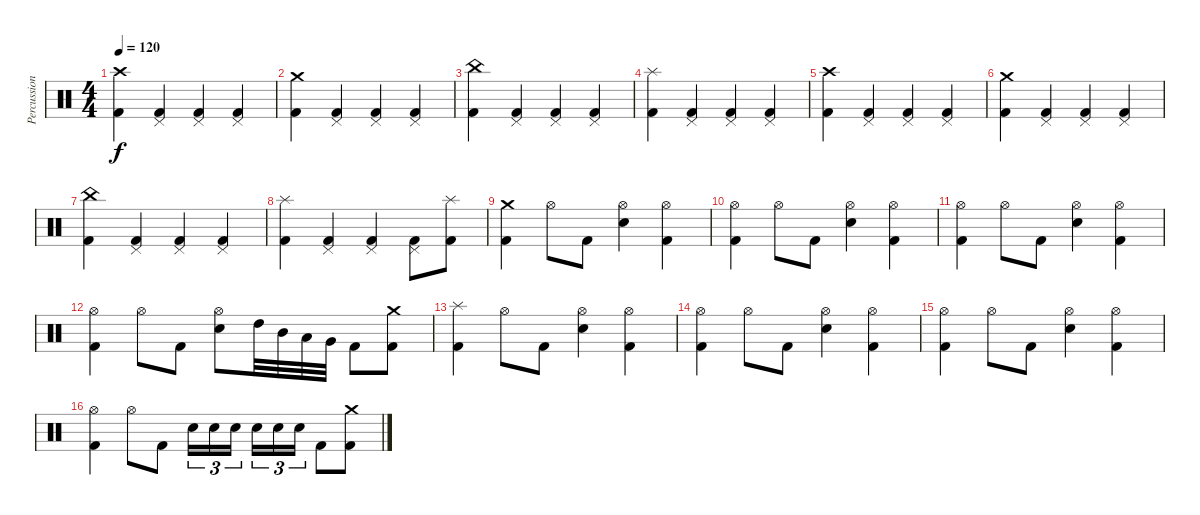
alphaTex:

\track ("Percussion" "Percussion") {instrument percussion}
\staff {score}
\articulation defaults
\ts (4 4)
\tempo 120
\clef neutral
\ks c
("Crash high (hit)" "Kick (hit) 2").4{dy f} ("Pedal Hi-Hat (hit)" "Kick (hit) 2").4 ("Pedal Hi-Hat (hit)" "Kick (hit) 2").4 ("Pedal Hi-Hat (hit)" "Kick (hit) 2").4 |
("Crash medium (hit)" "Kick (hit) 2").4 ("Pedal Hi-Hat (hit)" "Kick (hit) 2").4 ("Pedal Hi-Hat (hit)" "Kick (hit) 2").4 ("Pedal Hi-Hat (hit)" "Kick (hit) 2").4 |
("China (hit)" "Kick (hit) 2").4 ("Pedal Hi-Hat (hit)" "Kick (hit) 2").4 ("Pedal Hi-Hat (hit)" "Kick (hit) 2").4 ("Pedal Hi-Hat (hit)" "Kick (hit) 2").4 |
("Splash (hit)" "Kick (hit) 2").4 ("Pedal Hi-Hat (hit)" "Kick (hit) 2").4 ("Pedal Hi-Hat (hit)" "Kick (hit) 2").4 ("Pedal Hi-Hat (hit)" "Kick (hit) 2").4 |
("Crash high (hit)" "Kick (hit) 2").4 ("Pedal Hi-Hat (hit)" "Kick (hit) 2").4 ("Pedal Hi-Hat (hit)" "Kick (hit) 2").4 ("Pedal Hi-Hat (hit)" "Kick (hit) 2").4 |
("Crash medium (hit)" "Kick (hit) 2").4 ("Pedal Hi-Hat (hit)" "Kick (hit) 2").4 ("Pedal Hi-Hat (hit)" "Kick (hit) 2").4 ("Pedal Hi-Hat (hit)" "Kick (hit) 2").4 |
("China (hit)" "Kick (hit) 2").4 ("Pedal Hi-Hat (hit)" "Kick (hit) 2").4 ("Pedal Hi-Hat (hit)" "Kick (hit) 2").4 ("Pedal Hi-Hat (hit)" "Kick (hit) 2").4 |
("Splash (hit)" "Kick (hit) 2").4 ("Pedal Hi-Hat (hit)" "Kick (hit) 2").4 ("Pedal Hi-Hat (hit)" "Kick (hit) 2").4 ("Pedal Hi-Hat (hit)" "Kick (hit) 2").8 ("Splash (hit)" "Kick (hit) 2").8 |
("Crash medium (hit)" "Kick (hit) 2").4 "Hi-Hat (open)".8 "Kick (hit) 2".8 ("Hi-Hat (open)" "Electric Snare (hit)").4 ("Hi-Hat (open)" "Kick (hit) 2").4 |
("Hi-Hat (open)" "Kick (hit) 2").4 "Hi-Hat (open)".8 "Kick (hit) 2".8 ("Hi-Hat (open)" "Electric Snare (hit)").4 ("Hi-Hat (open)" "Kick (hit) 2").4 |
("Hi-Hat (open)" "Kick (hit) 2").4 "Hi-Hat (open)".8 "Kick (hit) 2".8 ("Hi-Hat (open)" "Electric Snare (hit)").4 ("Hi-Hat (open)" "Kick (hit) 2").4 |
("Hi-Hat (open)" "Kick (hit) 2").4 "Hi-Hat (open)".8 "Kick (hit) 2".8 ("Hi-Hat (open)" "Electric Snare (hit)").8 "High Tom (hit)".32 "Mid Tom (hit)".32 "Low Tom (hit)".32 "Very Low Tom (hit)".32 "Kick (hit) 2".8 ("Crash medium (hit)" "Kick (hit) 2").8 |
("Splash (hit)" "Kick (hit) 2").4 "Hi-Hat (open)".8 "Kick (hit) 2".8 ("Hi-Hat (open)" "Electric Snare (hit)").4 ("Hi-Hat (open)" "Kick (hit) 2").4 |
("Hi-Hat (open)" "Kick (hit) 2").4 "Hi-Hat (open)".8 "Kick (hit) 2".8 ("Hi-Hat (open)" "Electric Snare (hit)").4 ("Hi-Hat (open)" "Kick (hit) 2").4 |
("Hi-Hat (open)" "Kick (hit) 2").4 "Hi-Hat (open)".8 "Kick (hit) 2".8 ("Hi-Hat (open)" "Electric Snare (hit)").4 ("Hi-Hat (open)" "Kick (hit) 2").4 |
("Hi-Hat (open)" "Kick (hit) 2").4 "Hi-Hat (open)".8 "Kick (hit) 2".8 "Electric Snare (hit)".16{tu (3 2)} "Electric Snare (hit)".16{tu (3 2)} "Electric Snare (hit)".16{tu (3 2)} "Electric Snare (hit)".16{tu (3 2)} "Electric Snare (hit)".16{tu (3 2)} "Electric Snare (hit)".16{tu (3 2)} "Kick (hit) 2".8 ("Crash medium (hit)" "Kick (hit) 2").8
